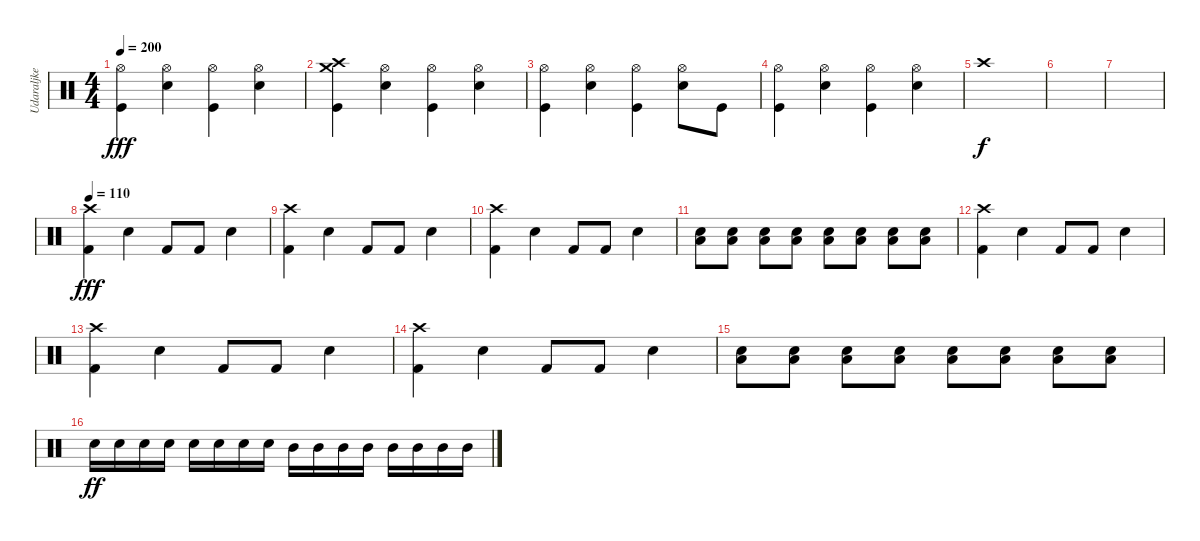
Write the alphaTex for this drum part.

\track ("Udaraljke" "Udaraljke") {instrument percussion}
\staff {score}
\articulation defaults
\ts (4 4)
\tempo 200
\clef neutral
\ks c
("Hi-Hat (open)" "Kick (hit)").4{dy fff} ("Hi-Hat (open)" "Electric Snare (hit)").4 ("Hi-Hat (open)" "Kick (hit)").4 ("Hi-Hat (open)" "Electric Snare (hit)").4 |
("Crash high (hit)" "Crash medium (hit)" "Kick (hit)").4 ("Hi-Hat (open)" "Electric Snare (hit)").4 ("Hi-Hat (open)" "Kick (hit)").4 ("Hi-Hat (open)" "Electric Snare (hit)").4 |
("Hi-Hat (open)" "Kick (hit)").4 ("Hi-Hat (open)" "Electric Snare (hit)").4 ("Hi-Hat (open)" "Kick (hit)").4 ("Hi-Hat (open)" "Electric Snare (hit)").8 "Kick (hit)".8 |
("Hi-Hat (open)" "Kick (hit)").4 ("Hi-Hat (open)" "Electric Snare (hit)").4 ("Hi-Hat (open)" "Kick (hit)").4 ("Hi-Hat (open)" "Electric Snare (hit)").4 |
"Crash high (hit)".1{dy f} |
|
|
\tempo 110
("Kick (hit) 2" "Crash high (hit)").4{dy fff} "Snare (hit) 2".4 "Kick (hit) 2".8 "Kick (hit) 2".8 "Snare (hit) 2".4 |
("Kick (hit) 2" "Crash high (hit)").4 "Snare (hit) 2".4 "Kick (hit) 2".8 "Kick (hit) 2".8 "Snare (hit) 2".4 |
("Kick (hit) 2" "Crash high (hit)").4 "Snare (hit) 2".4 "Kick (hit) 2".8 "Kick (hit) 2".8 "Snare (hit) 2".4 |
("Snare (hit) 2" "Low Floor Tom (hit)").8 ("Snare (hit) 2" "Low Floor Tom (hit)").8 ("Snare (hit) 2" "Low Floor Tom (hit)").8 ("Snare (hit) 2" "Low Floor Tom (hit)").8 ("Low Floor Tom (hit)" "Electric Snare (hit)").8 ("Snare (hit) 2" "Low Floor Tom (hit)").8 ("Low Floor Tom (hit)" "Electric Snare (hit)").8 ("Snare (hit) 2" "Low Floor Tom (hit)").8 |
("Kick (hit) 2" "Crash high (hit)").4 "Snare (hit) 2".4 "Kick (hit) 2".8 "Kick (hit) 2".8 "Snare (hit) 2".4 |
("Kick (hit) 2" "Crash high (hit)").4 "Snare (hit) 2".4 "Kick (hit) 2".8 "Kick (hit) 2".8 "Snare (hit) 2".4 |
("Kick (hit) 2" "Crash high (hit)").4 "Snare (hit) 2".4 "Kick (hit) 2".8 "Kick (hit) 2".8 "Snare (hit) 2".4 |
("Snare (hit) 2" "Low Floor Tom (hit)").8 ("Snare (hit) 2" "Low Floor Tom (hit)").8 ("Snare (hit) 2" "Low Floor Tom (hit)").8 ("Snare (hit) 2" "Low Floor Tom (hit)").8 ("Low Floor Tom (hit)" "Electric Snare (hit)").8 ("Snare (hit) 2" "Low Floor Tom (hit)").8 ("Low Floor Tom (hit)" "Electric Snare (hit)").8 ("Snare (hit) 2" "Low Floor Tom (hit)").8 |
"Snare (hit) 2".16{dy ff} "Snare (hit) 2".16 "Snare (hit) 2".16 "Snare (hit) 2".16 "Snare (hit) 2".16 "Snare (hit) 2".16 "Snare (hit) 2".16 "Snare (hit) 2".16 "Mid Tom (hit)".16 "Mid Tom (hit)".16 "Mid Tom (hit)".16 "Mid Tom (hit)".16 "Mid Tom (hit)".16 "Mid Tom (hit)".16 "Mid Tom (hit)".16 "Mid Tom (hit)".16
